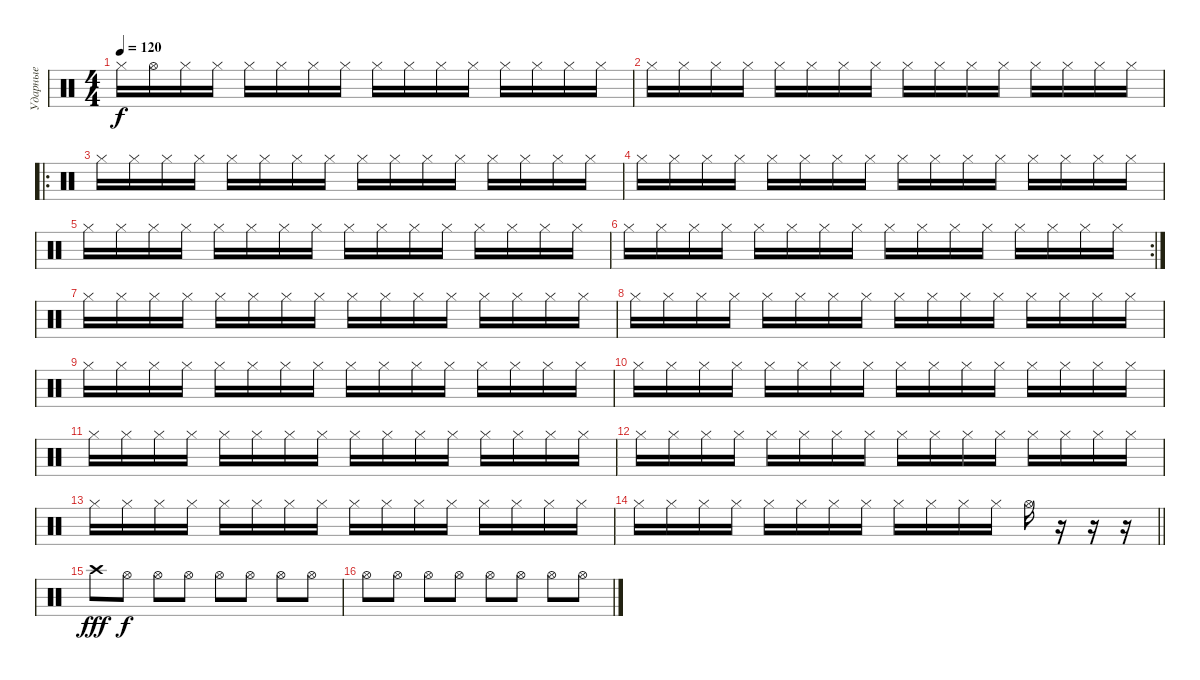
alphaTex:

\track ("Ударные" "Ударные") {instrument percussion}
\staff {score}
\articulation defaults
\ts (4 4)
\tempo 120
\clef neutral
\ks c "Hi-Hat (closed)".16{dy f} "Hi-Hat (open)".16 "Hi-Hat (closed)".16 "Hi-Hat (closed)".16 "Hi-Hat (closed)".16 "Hi-Hat (closed)".16 "Hi-Hat (closed)".16 "Hi-Hat (closed)".16 "Hi-Hat (closed)".16 "Hi-Hat (closed)".16 "Hi-Hat (closed)".16 "Hi-Hat (closed)".16 "Hi-Hat (closed)".16 "Hi-Hat (closed)".16 "Hi-Hat (closed)".16 "Hi-Hat (closed)".16
|
"Hi-Hat (closed)".16 "Hi-Hat (closed)".16 "Hi-Hat (closed)".16 "Hi-Hat (closed)".16 "Hi-Hat (closed)".16 "Hi-Hat (closed)".16 "Hi-Hat (closed)".16 "Hi-Hat (closed)".16 "Hi-Hat (closed)".16 "Hi-Hat (closed)".16 "Hi-Hat (closed)".16 "Hi-Hat (closed)".16 "Hi-Hat (closed)".16 "Hi-Hat (closed)".16 "Hi-Hat (closed)".16 "Hi-Hat (closed)".16 |
\ro "Hi-Hat (closed)".16 "Hi-Hat (closed)".16 "Hi-Hat (closed)".16 "Hi-Hat (closed)".16 "Hi-Hat (closed)".16 "Hi-Hat (closed)".16 "Hi-Hat (closed)".16 "Hi-Hat (closed)".16 "Hi-Hat (closed)".16 "Hi-Hat (closed)".16 "Hi-Hat (closed)".16 "Hi-Hat (closed)".16 "Hi-Hat (closed)".16 "Hi-Hat (closed)".16 "Hi-Hat (closed)".16 "Hi-Hat (closed)".16
|
"Hi-Hat (closed)".16 "Hi-Hat (closed)".16 "Hi-Hat (closed)".16 "Hi-Hat (closed)".16 "Hi-Hat (closed)".16 "Hi-Hat (closed)".16 "Hi-Hat (closed)".16 "Hi-Hat (closed)".16 "Hi-Hat (closed)".16 "Hi-Hat (closed)".16 "Hi-Hat (closed)".16 "Hi-Hat (closed)".16 "Hi-Hat (closed)".16 "Hi-Hat (closed)".16 "Hi-Hat (closed)".16 "Hi-Hat (closed)".16 |
"Hi-Hat (closed)".16 "Hi-Hat (closed)".16 "Hi-Hat (closed)".16 "Hi-Hat (closed)".16 "Hi-Hat (closed)".16 "Hi-Hat (closed)".16 "Hi-Hat (closed)".16 "Hi-Hat (closed)".16 "Hi-Hat (closed)".16 "Hi-Hat (closed)".16 "Hi-Hat (closed)".16 "Hi-Hat (closed)".16 "Hi-Hat (closed)".16 "Hi-Hat (closed)".16 "Hi-Hat (closed)".16 "Hi-Hat (closed)".16 |
\rc 2 "Hi-Hat (closed)".16 "Hi-Hat (closed)".16 "Hi-Hat (closed)".16 "Hi-Hat (closed)".16 "Hi-Hat (closed)".16 "Hi-Hat (closed)".16 "Hi-Hat (closed)".16 "Hi-Hat (closed)".16 "Hi-Hat (closed)".16 "Hi-Hat (closed)".16 "Hi-Hat (closed)".16 "Hi-Hat (closed)".16 "Hi-Hat (closed)".16 "Hi-Hat (closed)".16 "Hi-Hat (closed)".16 "Hi-Hat (closed)".16
|
"Hi-Hat (closed)".16 "Hi-Hat (closed)".16 "Hi-Hat (closed)".16 "Hi-Hat (closed)".16 "Hi-Hat (closed)".16 "Hi-Hat (closed)".16 "Hi-Hat (closed)".16 "Hi-Hat (closed)".16 "Hi-Hat (closed)".16 "Hi-Hat (closed)".16 "Hi-Hat (closed)".16 "Hi-Hat (closed)".16 "Hi-Hat (closed)".16 "Hi-Hat (closed)".16 "Hi-Hat (closed)".16 "Hi-Hat (closed)".16 |
"Hi-Hat (closed)".16 "Hi-Hat (closed)".16 "Hi-Hat (closed)".16 "Hi-Hat (closed)".16 "Hi-Hat (closed)".16 "Hi-Hat (closed)".16 "Hi-Hat (closed)".16 "Hi-Hat (closed)".16 "Hi-Hat (closed)".16 "Hi-Hat (closed)".16 "Hi-Hat (closed)".16 "Hi-Hat (closed)".16 "Hi-Hat (closed)".16 "Hi-Hat (closed)".16 "Hi-Hat (closed)".16 "Hi-Hat (closed)".16 |
"Hi-Hat (closed)".16 "Hi-Hat (closed)".16 "Hi-Hat (closed)".16 "Hi-Hat (closed)".16 "Hi-Hat (closed)".16 "Hi-Hat (closed)".16 "Hi-Hat (closed)".16 "Hi-Hat (closed)".16 "Hi-Hat (closed)".16 "Hi-Hat (closed)".16 "Hi-Hat (closed)".16 "Hi-Hat (closed)".16 "Hi-Hat (closed)".16 "Hi-Hat (closed)".16 "Hi-Hat (closed)".16 "Hi-Hat (closed)".16 |
"Hi-Hat (closed)".16 "Hi-Hat (closed)".16 "Hi-Hat (closed)".16 "Hi-Hat (closed)".16 "Hi-Hat (closed)".16 "Hi-Hat (closed)".16 "Hi-Hat (closed)".16 "Hi-Hat (closed)".16 "Hi-Hat (closed)".16 "Hi-Hat (closed)".16 "Hi-Hat (closed)".16 "Hi-Hat (closed)".16 "Hi-Hat (closed)".16 "Hi-Hat (closed)".16 "Hi-Hat (closed)".16 "Hi-Hat (closed)".16 |
"Hi-Hat (closed)".16 "Hi-Hat (closed)".16 "Hi-Hat (closed)".16 "Hi-Hat (closed)".16 "Hi-Hat (closed)".16 "Hi-Hat (closed)".16 "Hi-Hat (closed)".16 "Hi-Hat (closed)".16 "Hi-Hat (closed)".16 "Hi-Hat (closed)".16 "Hi-Hat (closed)".16 "Hi-Hat (closed)".16 "Hi-Hat (closed)".16 "Hi-Hat (closed)".16 "Hi-Hat (closed)".16 "Hi-Hat (closed)".16 |
"Hi-Hat (closed)".16 "Hi-Hat (closed)".16 "Hi-Hat (closed)".16 "Hi-Hat (closed)".16 "Hi-Hat (closed)".16 "Hi-Hat (closed)".16 "Hi-Hat (closed)".16 "Hi-Hat (closed)".16 "Hi-Hat (closed)".16 "Hi-Hat (closed)".16 "Hi-Hat (closed)".16 "Hi-Hat (closed)".16 "Hi-Hat (closed)".16 "Hi-Hat (closed)".16 "Hi-Hat (closed)".16 "Hi-Hat (closed)".16 |
"Hi-Hat (closed)".16 "Hi-Hat (closed)".16 "Hi-Hat (closed)".16 "Hi-Hat (closed)".16 "Hi-Hat (closed)".16 "Hi-Hat (closed)".16 "Hi-Hat (closed)".16 "Hi-Hat (closed)".16 "Hi-Hat (closed)".16 "Hi-Hat (closed)".16 "Hi-Hat (closed)".16 "Hi-Hat (closed)".16 "Hi-Hat (closed)".16 "Hi-Hat (closed)".16 "Hi-Hat (closed)".16 "Hi-Hat (closed)".16 |
\barLineRight lightlight "Hi-Hat (closed)".16 "Hi-Hat (closed)".16 "Hi-Hat (closed)".16 "Hi-Hat (closed)".16 "Hi-Hat (closed)".16 "Hi-Hat (closed)".16 "Hi-Hat (closed)".16 "Hi-Hat (closed)".16 "Hi-Hat (closed)".16 "Hi-Hat (closed)".16 "Hi-Hat (closed)".16 "Hi-Hat (closed)".16 "Hi-Hat (open)".16
r.16 r.16 r.16 |
"Crash high (hit)".8{dy fff volume 16} "Hi-Hat (open)".8{dy f} "Hi-Hat (open)".8 "Hi-Hat (open)".8 "Hi-Hat (open)".8 "Hi-Hat (open)".8 "Hi-Hat (open)".8 "Hi-Hat (open)".8 |
"Hi-Hat (open)".8 "Hi-Hat (open)".8 "Hi-Hat (open)".8 "Hi-Hat (open)".8 "Hi-Hat (open)".8 "Hi-Hat (open)".8 "Hi-Hat (open)".8 "Hi-Hat (open)".8
